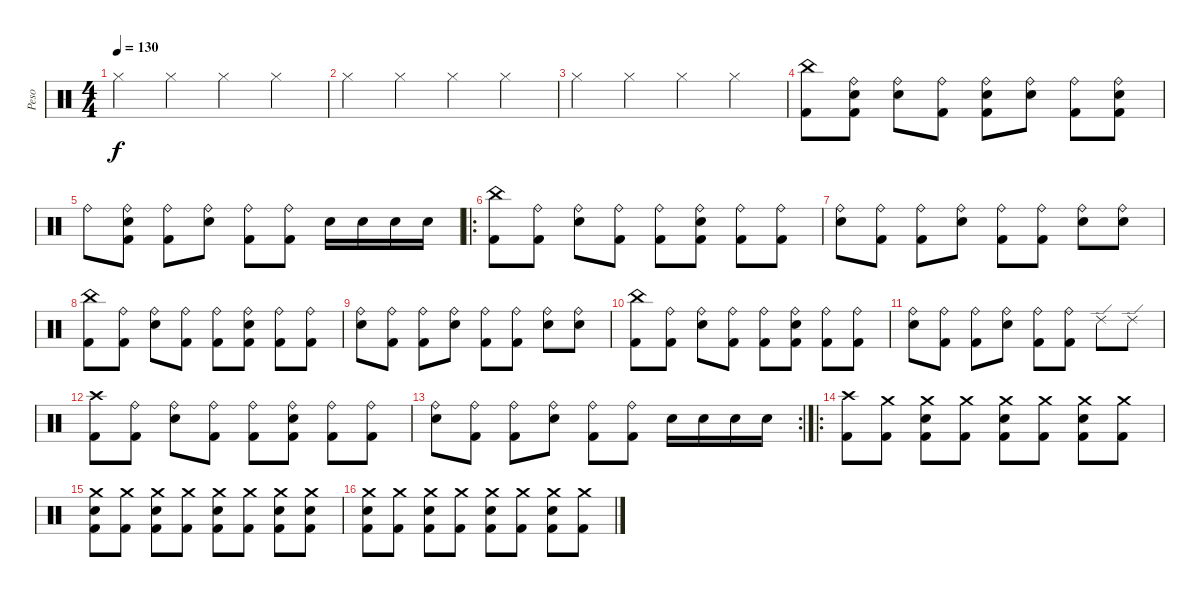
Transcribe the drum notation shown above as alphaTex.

\track ("Peso" "Peso") {instrument percussion}
\staff {score}
\articulation defaults
\ts (4 4)
\tempo 130
\clef neutral
\ks c "Hi-Hat (closed)".4{dy f} "Hi-Hat (closed)"{x}.4 "Hi-Hat (closed)"{x}.4 "Hi-Hat (closed)"{x}.4
|
"Hi-Hat (closed)".4 "Hi-Hat (closed)"{x}.4 "Hi-Hat (closed)"{x}.4 "Hi-Hat (closed)"{x}.4 |
"Hi-Hat (closed)".4 "Hi-Hat (closed)"{x}.4 "Hi-Hat (closed)"{x}.4 "Hi-Hat (closed)"{x}.4 |
("China (hit)" "Kick (hit) 2").8 ("Ride (bell)" "Snare (hit) 2" "Kick (hit) 2").8 ("Ride (bell)" "Snare (hit) 2").8 ("Ride (bell)" "Kick (hit) 2").8 ("Ride (bell)" "Snare (hit) 2" "Kick (hit) 2").8 ("Ride (bell)" "Snare (hit) 2").8 ("Ride (bell)" "Kick (hit) 2").8 ("Ride (bell)" "Snare (hit) 2" "Kick (hit) 2").8 |
"Ride (bell)".8 ("Ride (bell)" "Snare (hit) 2" "Kick (hit) 2").8 ("Ride (bell)" "Kick (hit) 2").8 ("Ride (bell)" "Snare (hit) 2").8 ("Ride (bell)" "Kick (hit) 2").8 ("Ride (bell)" "Kick (hit) 2").8 "Snare (hit) 2".16 "Snare (hit) 2".16 "Snare (hit) 2".16 "Snare (hit) 2".16 |
\ro
("China (hit)" "Kick (hit) 2").8 ("Ride (bell)" "Kick (hit) 2").8 ("Ride (bell)" "Snare (hit) 2").8 ("Ride (bell)" "Kick (hit) 2").8 ("Ride (bell)" "Kick (hit) 2").8 ("Ride (bell)" "Snare (hit) 2" "Kick (hit) 2").8 ("Ride (bell)" "Kick (hit) 2").8 ("Ride (bell)" "Kick (hit) 2").8 |
("Ride (bell)" "Snare (hit) 2").8 ("Ride (bell)" "Kick (hit) 2").8 ("Ride (bell)" "Kick (hit) 2").8 ("Ride (bell)" "Snare (hit) 2").8 ("Ride (bell)" "Kick (hit) 2").8 ("Ride (bell)" "Kick (hit) 2").8 ("Ride (bell)" "Snare (hit) 2").8 ("Ride (bell)" "Snare (hit) 2").8 |
("China (hit)" "Kick (hit) 2").8 ("Ride (bell)" "Kick (hit) 2").8 ("Ride (bell)" "Snare (hit) 2").8 ("Ride (bell)" "Kick (hit) 2").8 ("Ride (bell)" "Kick (hit) 2").8 ("Ride (bell)" "Snare (hit) 2" "Kick (hit) 2").8 ("Ride (bell)" "Kick (hit) 2").8 ("Ride (bell)" "Kick (hit) 2").8 |
("Ride (bell)" "Snare (hit) 2").8 ("Ride (bell)" "Kick (hit) 2").8 ("Ride (bell)" "Kick (hit) 2").8 ("Ride (bell)" "Snare (hit) 2").8 ("Ride (bell)" "Kick (hit) 2").8 ("Ride (bell)" "Kick (hit) 2").8 ("Ride (bell)" "Snare (hit) 2").8 ("Ride (bell)" "Snare (hit) 2").8 |
("China (hit)" "Kick (hit) 2").8 ("Ride (bell)" "Kick (hit) 2").8 ("Ride (bell)" "Snare (hit) 2").8 ("Ride (bell)" "Kick (hit) 2").8 ("Ride (bell)" "Kick (hit) 2").8 ("Ride (bell)" "Snare (hit) 2" "Kick (hit) 2").8 ("Ride (bell)" "Kick (hit) 2").8 ("Ride (bell)" "Kick (hit) 2").8 |
("Ride (bell)" "Snare (hit) 2").8 ("Ride (bell)" "Kick (hit) 2").8 ("Ride (bell)" "Kick (hit) 2").8 ("Ride (bell)" "Snare (hit) 2").8 ("Ride (bell)" "Kick (hit) 2").8 ("Ride (bell)" "Kick (hit) 2").8 "Ride (edge) 2".8 "Ride (edge) 2".8 |
("Crash high (hit)" "Kick (hit) 2").8 ("Ride (bell)" "Kick (hit) 2").8 ("Ride (bell)" "Snare (hit) 2").8 ("Ride (bell)" "Kick (hit) 2").8 ("Ride (bell)" "Kick (hit) 2").8 ("Ride (bell)" "Snare (hit) 2" "Kick (hit) 2").8 ("Ride (bell)" "Kick (hit) 2").8 ("Ride (bell)" "Kick (hit) 2").8 |
\rc 2
("Ride (bell)" "Snare (hit) 2").8 ("Ride (bell)" "Kick (hit) 2").8 ("Ride (bell)" "Kick (hit) 2").8 ("Ride (bell)" "Snare (hit) 2").8 ("Ride (bell)" "Kick (hit) 2").8 ("Ride (bell)" "Kick (hit) 2").8 "Snare (hit) 2".16 "Snare (hit) 2".16 "Snare (hit) 2".16 "Snare (hit) 2".16 |
\ro
("Crash high (hit)" "Kick (hit) 2").8 ("Crash medium (hit)" "Kick (hit) 2").8 ("Crash medium (hit)" "Snare (hit) 2" "Kick (hit) 2").8 ("Crash medium (hit)" "Kick (hit) 2").8 ("Crash medium (hit)" "Snare (hit) 2" "Kick (hit) 2").8 ("Crash medium (hit)" "Kick (hit) 2").8 ("Crash medium (hit)" "Snare (hit) 2" "Kick (hit) 2").8 ("Crash medium (hit)" "Kick (hit) 2").8 |
("Crash medium (hit)" "Snare (hit) 2" "Kick (hit) 2").8 ("Crash medium (hit)" "Kick (hit) 2").8 ("Crash medium (hit)" "Snare (hit) 2" "Kick (hit) 2").8 ("Crash medium (hit)" "Kick (hit) 2").8 ("Crash medium (hit)" "Snare (hit) 2" "Kick (hit) 2").8 ("Crash medium (hit)" "Kick (hit) 2").8 ("Crash medium (hit)" "Snare (hit) 2" "Kick (hit) 2").8 ("Crash medium (hit)" "Snare (hit) 2" "Kick (hit) 2").8 |
("Crash medium (hit)" "Snare (hit) 2" "Kick (hit) 2").8 ("Crash medium (hit)" "Kick (hit) 2").8 ("Crash medium (hit)" "Snare (hit) 2" "Kick (hit) 2").8 ("Crash medium (hit)" "Kick (hit) 2").8 ("Crash medium (hit)" "Snare (hit) 2" "Kick (hit) 2").8 ("Crash medium (hit)" "Kick (hit) 2").8 ("Crash medium (hit)" "Snare (hit) 2" "Kick (hit) 2").8 ("Crash medium (hit)" "Kick (hit) 2").8
